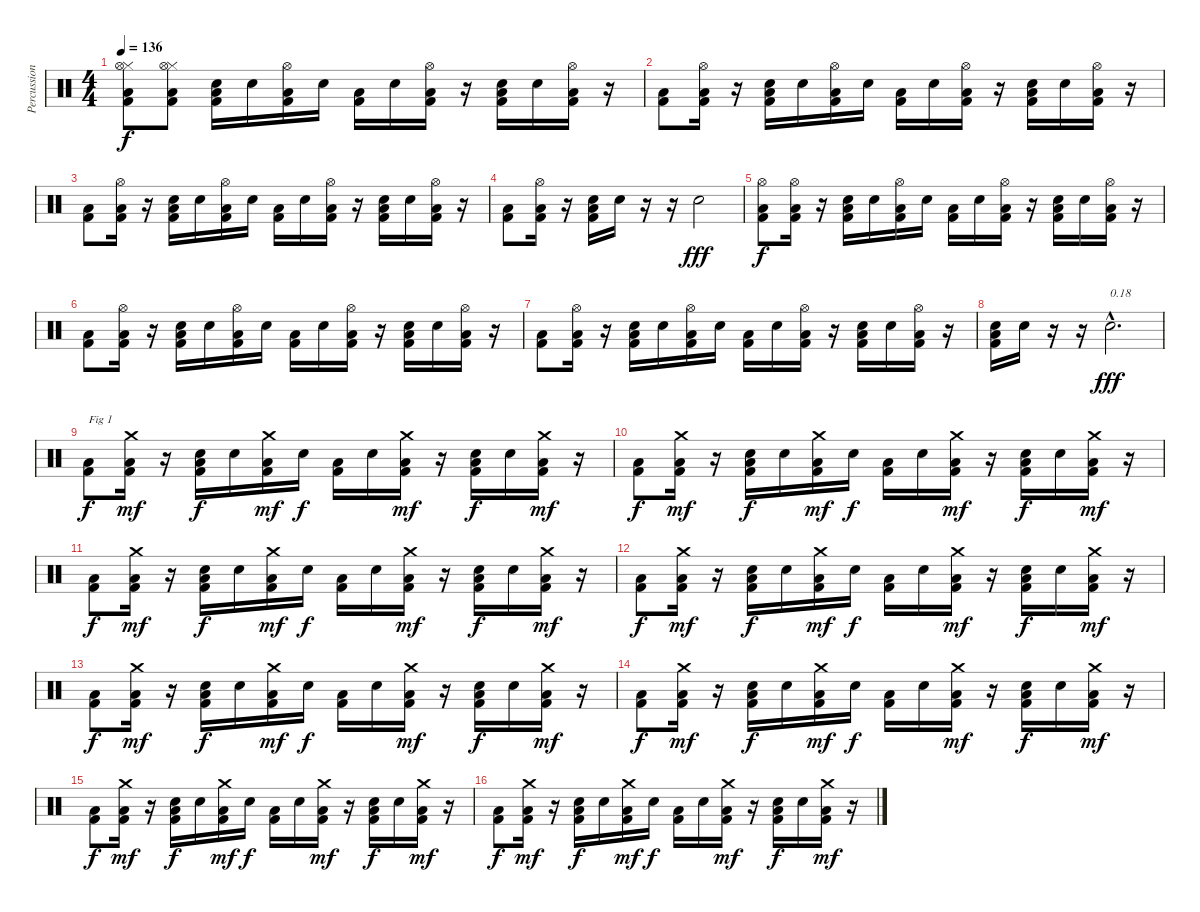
\track ("Percussions" "Percussion") {instrument percussion}
\staff {score}
\articulation defaults
\ts (4 4)
\tempo 136
\clef neutral
\ks c
("Low Floor Tom (hit)" "Kick (hit) 2" "Hi-Hat (closed)" "Hi-Hat (open)").8{dy f} ("Low Floor Tom (hit)" "Kick (hit) 2" "Hi-Hat (closed)" "Hi-Hat (open)").8 ("Low Floor Tom (hit)" "Kick (hit) 2" "Electric Snare (hit)").16 "Electric Snare (hit)".16 ("Low Floor Tom (hit)" "Kick (hit) 2" "Hi-Hat (open)").16 "Electric Snare (hit)".16 ("Low Floor Tom (hit)" "Kick (hit) 2").16 "Electric Snare (hit)".16 ("Low Floor Tom (hit)" "Kick (hit) 2" "Hi-Hat (open)").16 r.16 ("Low Floor Tom (hit)" "Kick (hit) 2" "Electric Snare (hit)").16 "Electric Snare (hit)".16 ("Low Floor Tom (hit)" "Kick (hit) 2" "Hi-Hat (open)").16 r.16 |
("Low Floor Tom (hit)" "Kick (hit) 2").8 ("Low Floor Tom (hit)" "Kick (hit) 2" "Hi-Hat (open)").16 r.16 ("Low Floor Tom (hit)" "Kick (hit) 2" "Electric Snare (hit)").16 "Electric Snare (hit)".16 ("Low Floor Tom (hit)" "Kick (hit) 2" "Hi-Hat (open)").16 "Electric Snare (hit)".16 ("Low Floor Tom (hit)" "Kick (hit) 2").16 "Electric Snare (hit)".16 ("Low Floor Tom (hit)" "Kick (hit) 2" "Hi-Hat (open)").16 r.16 ("Low Floor Tom (hit)" "Kick (hit) 2" "Electric Snare (hit)").16 "Electric Snare (hit)".16 ("Low Floor Tom (hit)" "Kick (hit) 2" "Hi-Hat (open)").16 r.16 |
("Low Floor Tom (hit)" "Kick (hit) 2").8 ("Low Floor Tom (hit)" "Kick (hit) 2" "Hi-Hat (open)").16 r.16 ("Low Floor Tom (hit)" "Kick (hit) 2" "Electric Snare (hit)").16 "Electric Snare (hit)".16 ("Low Floor Tom (hit)" "Kick (hit) 2" "Hi-Hat (open)").16 "Electric Snare (hit)".16 ("Low Floor Tom (hit)" "Kick (hit) 2").16 "Electric Snare (hit)".16 ("Low Floor Tom (hit)" "Kick (hit) 2" "Hi-Hat (open)").16 r.16 ("Low Floor Tom (hit)" "Kick (hit) 2" "Electric Snare (hit)").16 "Electric Snare (hit)".16 ("Low Floor Tom (hit)" "Kick (hit) 2" "Hi-Hat (open)").16 r.16 |
("Low Floor Tom (hit)" "Kick (hit) 2").8 ("Low Floor Tom (hit)" "Kick (hit) 2" "Hi-Hat (open)").16 r.16 ("Low Floor Tom (hit)" "Kick (hit) 2" "Electric Snare (hit)").16 "Electric Snare (hit)".16 r.16 r.16 "Electric Snare (hit)".2{dy fff} |
("Low Floor Tom (hit)" "Kick (hit) 2" "Hi-Hat (open)").8{dy f} ("Low Floor Tom (hit)" "Kick (hit) 2" "Hi-Hat (open)").16 r.16 ("Low Floor Tom (hit)" "Kick (hit) 2" "Electric Snare (hit)").16 "Electric Snare (hit)".16 ("Low Floor Tom (hit)" "Kick (hit) 2" "Hi-Hat (open)").16 "Electric Snare (hit)".16 ("Low Floor Tom (hit)" "Kick (hit) 2").16 "Electric Snare (hit)".16 ("Low Floor Tom (hit)" "Kick (hit) 2" "Hi-Hat (open)").16 r.16 ("Low Floor Tom (hit)" "Kick (hit) 2" "Electric Snare (hit)").16 "Electric Snare (hit)".16 ("Low Floor Tom (hit)" "Kick (hit) 2" "Hi-Hat (open)").16 r.16 |
("Low Floor Tom (hit)" "Kick (hit) 2").8 ("Low Floor Tom (hit)" "Kick (hit) 2" "Hi-Hat (open)").16 r.16 ("Low Floor Tom (hit)" "Kick (hit) 2" "Electric Snare (hit)").16 "Electric Snare (hit)".16 ("Low Floor Tom (hit)" "Kick (hit) 2" "Hi-Hat (open)").16 "Electric Snare (hit)".16 ("Low Floor Tom (hit)" "Kick (hit) 2").16 "Electric Snare (hit)".16 ("Low Floor Tom (hit)" "Kick (hit) 2" "Hi-Hat (open)").16 r.16 ("Low Floor Tom (hit)" "Kick (hit) 2" "Electric Snare (hit)").16 "Electric Snare (hit)".16 ("Low Floor Tom (hit)" "Kick (hit) 2" "Hi-Hat (open)").16 r.16 |
("Low Floor Tom (hit)" "Kick (hit) 2").8 ("Low Floor Tom (hit)" "Kick (hit) 2" "Hi-Hat (open)").16 r.16 ("Low Floor Tom (hit)" "Kick (hit) 2" "Electric Snare (hit)").16 "Electric Snare (hit)".16 ("Low Floor Tom (hit)" "Kick (hit) 2" "Hi-Hat (open)").16 "Electric Snare (hit)".16 ("Low Floor Tom (hit)" "Kick (hit) 2").16 "Electric Snare (hit)".16 ("Low Floor Tom (hit)" "Kick (hit) 2" "Hi-Hat (open)").16 r.16 ("Low Floor Tom (hit)" "Kick (hit) 2" "Electric Snare (hit)").16 "Electric Snare (hit)".16 ("Low Floor Tom (hit)" "Kick (hit) 2" "Hi-Hat (open)").16 r.16 |
("Low Floor Tom (hit)" "Kick (hit) 2" "Electric Snare (hit)").16 "Electric Snare (hit)".16 r.16 r.16 "Electric Snare (hit)"{hac}.2{d txt "0.18" dy fff} |
("Low Floor Tom (hit)" "Kick (hit) 2").8{txt "Fig 1" dy f} ("Low Floor Tom (hit)" "Kick (hit) 2" "Crash medium (hit)").16{dy mf} r.16 ("Low Floor Tom (hit)" "Kick (hit) 2" "Electric Snare (hit)").16{dy f} "Electric Snare (hit)".16 ("Low Floor Tom (hit)" "Kick (hit) 2" "Crash medium (hit)").16{dy mf} "Electric Snare (hit)".16{dy f} ("Low Floor Tom (hit)" "Kick (hit) 2").16 "Electric Snare (hit)".16 ("Low Floor Tom (hit)" "Kick (hit) 2" "Crash medium (hit)").16{dy mf} r.16 ("Low Floor Tom (hit)" "Kick (hit) 2" "Electric Snare (hit)").16{dy f} "Electric Snare (hit)".16 ("Low Floor Tom (hit)" "Kick (hit) 2" "Crash medium (hit)").16{dy mf} r.16 |
("Low Floor Tom (hit)" "Kick (hit) 2").8{dy f} ("Low Floor Tom (hit)" "Kick (hit) 2" "Crash medium (hit)").16{dy mf} r.16 ("Low Floor Tom (hit)" "Kick (hit) 2" "Electric Snare (hit)").16{dy f} "Electric Snare (hit)".16 ("Low Floor Tom (hit)" "Kick (hit) 2" "Crash medium (hit)").16{dy mf} "Electric Snare (hit)".16{dy f} ("Low Floor Tom (hit)" "Kick (hit) 2").16 "Electric Snare (hit)".16 ("Low Floor Tom (hit)" "Kick (hit) 2" "Crash medium (hit)").16{dy mf} r.16 ("Low Floor Tom (hit)" "Kick (hit) 2" "Electric Snare (hit)").16{dy f} "Electric Snare (hit)".16 ("Low Floor Tom (hit)" "Kick (hit) 2" "Crash medium (hit)").16{dy mf} r.16 |
("Low Floor Tom (hit)" "Kick (hit) 2").8{dy f} ("Low Floor Tom (hit)" "Kick (hit) 2" "Crash medium (hit)").16{dy mf} r.16 ("Low Floor Tom (hit)" "Kick (hit) 2" "Electric Snare (hit)").16{dy f} "Electric Snare (hit)".16 ("Low Floor Tom (hit)" "Kick (hit) 2" "Crash medium (hit)").16{dy mf} "Electric Snare (hit)".16{dy f} ("Low Floor Tom (hit)" "Kick (hit) 2").16 "Electric Snare (hit)".16 ("Low Floor Tom (hit)" "Kick (hit) 2" "Crash medium (hit)").16{dy mf} r.16 ("Low Floor Tom (hit)" "Kick (hit) 2" "Electric Snare (hit)").16{dy f} "Electric Snare (hit)".16 ("Low Floor Tom (hit)" "Kick (hit) 2" "Crash medium (hit)").16{dy mf} r.16 |
("Low Floor Tom (hit)" "Kick (hit) 2").8{dy f} ("Low Floor Tom (hit)" "Kick (hit) 2" "Crash medium (hit)").16{dy mf} r.16 ("Low Floor Tom (hit)" "Kick (hit) 2" "Electric Snare (hit)").16{dy f} "Electric Snare (hit)".16 ("Low Floor Tom (hit)" "Kick (hit) 2" "Crash medium (hit)").16{dy mf} "Electric Snare (hit)".16{dy f} ("Low Floor Tom (hit)" "Kick (hit) 2").16 "Electric Snare (hit)".16 ("Low Floor Tom (hit)" "Kick (hit) 2" "Crash medium (hit)").16{dy mf} r.16 ("Low Floor Tom (hit)" "Kick (hit) 2" "Electric Snare (hit)").16{dy f} "Electric Snare (hit)".16 ("Low Floor Tom (hit)" "Kick (hit) 2" "Crash medium (hit)").16{dy mf} r.16 |
("Low Floor Tom (hit)" "Kick (hit) 2").8{dy f} ("Low Floor Tom (hit)" "Kick (hit) 2" "Crash medium (hit)").16{dy mf} r.16 ("Low Floor Tom (hit)" "Kick (hit) 2" "Electric Snare (hit)").16{dy f} "Electric Snare (hit)".16 ("Low Floor Tom (hit)" "Kick (hit) 2" "Crash medium (hit)").16{dy mf} "Electric Snare (hit)".16{dy f} ("Low Floor Tom (hit)" "Kick (hit) 2").16 "Electric Snare (hit)".16 ("Low Floor Tom (hit)" "Kick (hit) 2" "Crash medium (hit)").16{dy mf} r.16 ("Low Floor Tom (hit)" "Kick (hit) 2" "Electric Snare (hit)").16{dy f} "Electric Snare (hit)".16 ("Low Floor Tom (hit)" "Kick (hit) 2" "Crash medium (hit)").16{dy mf} r.16 |
("Low Floor Tom (hit)" "Kick (hit) 2").8{dy f} ("Low Floor Tom (hit)" "Kick (hit) 2" "Crash medium (hit)").16{dy mf} r.16 ("Low Floor Tom (hit)" "Kick (hit) 2" "Electric Snare (hit)").16{dy f} "Electric Snare (hit)".16 ("Low Floor Tom (hit)" "Kick (hit) 2" "Crash medium (hit)").16{dy mf} "Electric Snare (hit)".16{dy f} ("Low Floor Tom (hit)" "Kick (hit) 2").16 "Electric Snare (hit)".16 ("Low Floor Tom (hit)" "Kick (hit) 2" "Crash medium (hit)").16{dy mf} r.16 ("Low Floor Tom (hit)" "Kick (hit) 2" "Electric Snare (hit)").16{dy f} "Electric Snare (hit)".16 ("Low Floor Tom (hit)" "Kick (hit) 2" "Crash medium (hit)").16{dy mf} r.16 |
("Low Floor Tom (hit)" "Kick (hit) 2").8{dy f} ("Low Floor Tom (hit)" "Kick (hit) 2" "Crash medium (hit)").16{dy mf} r.16 ("Low Floor Tom (hit)" "Kick (hit) 2" "Electric Snare (hit)").16{dy f} "Electric Snare (hit)".16 ("Low Floor Tom (hit)" "Kick (hit) 2" "Crash medium (hit)").16{dy mf} "Electric Snare (hit)".16{dy f} ("Low Floor Tom (hit)" "Kick (hit) 2").16 "Electric Snare (hit)".16 ("Low Floor Tom (hit)" "Kick (hit) 2" "Crash medium (hit)").16{dy mf} r.16 ("Low Floor Tom (hit)" "Kick (hit) 2" "Electric Snare (hit)").16{dy f} "Electric Snare (hit)".16 ("Low Floor Tom (hit)" "Kick (hit) 2" "Crash medium (hit)").16{dy mf} r.16 |
("Low Floor Tom (hit)" "Kick (hit) 2").8{dy f} ("Low Floor Tom (hit)" "Kick (hit) 2" "Crash medium (hit)").16{dy mf} r.16 ("Low Floor Tom (hit)" "Kick (hit) 2" "Electric Snare (hit)").16{dy f} "Electric Snare (hit)".16 ("Low Floor Tom (hit)" "Kick (hit) 2" "Crash medium (hit)").16{dy mf} "Electric Snare (hit)".16{dy f} ("Low Floor Tom (hit)" "Kick (hit) 2").16 "Electric Snare (hit)".16 ("Low Floor Tom (hit)" "Kick (hit) 2" "Crash medium (hit)").16{dy mf} r.16 ("Low Floor Tom (hit)" "Kick (hit) 2" "Electric Snare (hit)").16{dy f} "Electric Snare (hit)".16 ("Low Floor Tom (hit)" "Kick (hit) 2" "Crash medium (hit)").16{dy mf} r.16
